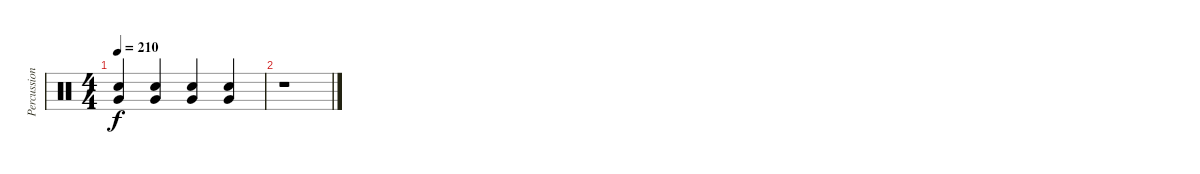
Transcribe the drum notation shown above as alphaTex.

\track ("Percussion" "Percussion") {instrument percussion}
\staff {score}
\articulation defaults
\ts (4 4)
\tempo 210
\clef neutral
\ks c
("Very Low Tom (hit)" "Electric Snare (hit)").4{dy f} ("Very Low Tom (hit)" "Electric Snare (hit)").4 ("Very Low Tom (hit)" "Electric Snare (hit)").4 ("Very Low Tom (hit)" "Electric Snare (hit)").4 |
r.1
